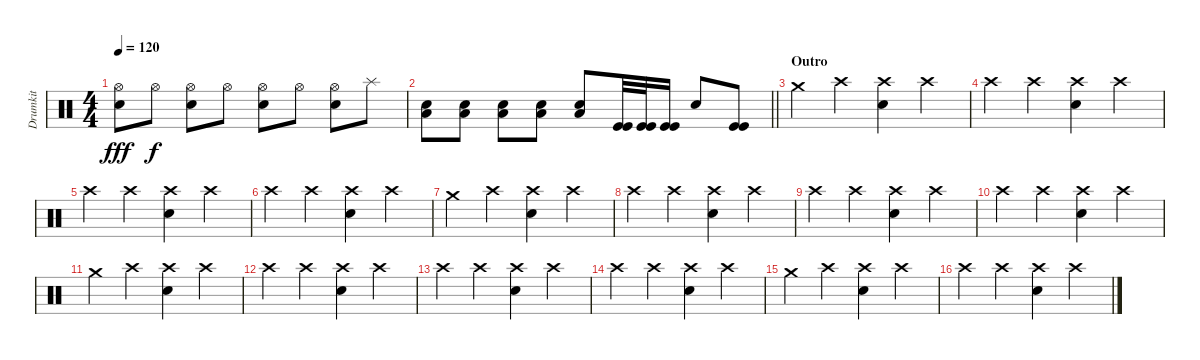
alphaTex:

\track ("Drumkit" "Drumkit") {instrument percussion}
\staff {score}
\articulation defaults
\ts (4 4)
\tempo 120
\clef neutral
\ks c
("Hi-Hat (open)" "Electric Snare (hit)").8{dy fff} "Hi-Hat (open)".8{dy f} ("Hi-Hat (open)" "Electric Snare (hit)").8 "Hi-Hat (open)".8 ("Hi-Hat (open)" "Electric Snare (hit)").8 "Hi-Hat (open)".8 ("Hi-Hat (open)" "Electric Snare (hit)").8 "Splash (hit)".8 |
\barLineRight lightlight
("Low Floor Tom (hit)" "Electric Snare (hit)").8 ("Low Floor Tom (hit)" "Electric Snare (hit)").8 ("Low Floor Tom (hit)" "Electric Snare (hit)").8 ("Low Floor Tom (hit)" "Electric Snare (hit)").8 ("Low Floor Tom (hit)" "Electric Snare (hit)").8 ("Kick (hit)" "Kick (hit)").32 ("Kick (hit)" "Kick (hit)").32 ("Kick (hit)" "Kick (hit)").16 "Electric Snare (hit)".8 ("Kick (hit)" "Kick (hit)").8 |
\section ("" "Outro")
"Crash medium (hit)".4 "Crash high (hit)".4 ("Crash high (hit)" "Electric Snare (hit)").4 "Crash high (hit)".4 |
"Crash high (hit)".4 "Crash high (hit)".4 ("Crash high (hit)" "Electric Snare (hit)").4 "Crash high (hit)".4 |
"Crash high (hit)".4 "Crash high (hit)".4 ("Crash high (hit)" "Electric Snare (hit)").4 "Crash high (hit)".4 |
"Crash high (hit)".4 "Crash high (hit)".4 ("Crash high (hit)" "Electric Snare (hit)").4 "Crash high (hit)".4 |
"Crash medium (hit)".4 "Crash high (hit)".4 ("Crash high (hit)" "Electric Snare (hit)").4 "Crash high (hit)".4 |
"Crash high (hit)".4 "Crash high (hit)".4 ("Crash high (hit)" "Electric Snare (hit)").4 "Crash high (hit)".4 |
"Crash high (hit)".4 "Crash high (hit)".4 ("Crash high (hit)" "Electric Snare (hit)").4 "Crash high (hit)".4 |
"Crash high (hit)".4 "Crash high (hit)".4 ("Crash high (hit)" "Electric Snare (hit)").4 "Crash high (hit)".4 |
"Crash medium (hit)".4 "Crash high (hit)".4 ("Crash high (hit)" "Electric Snare (hit)").4 "Crash high (hit)".4 |
"Crash high (hit)".4 "Crash high (hit)".4 ("Crash high (hit)" "Electric Snare (hit)").4 "Crash high (hit)".4 |
"Crash high (hit)".4 "Crash high (hit)".4 ("Crash high (hit)" "Electric Snare (hit)").4 "Crash high (hit)".4 |
"Crash high (hit)".4 "Crash high (hit)".4 ("Crash high (hit)" "Electric Snare (hit)").4 "Crash high (hit)".4 |
"Crash medium (hit)".4 "Crash high (hit)".4 ("Crash high (hit)" "Electric Snare (hit)").4 "Crash high (hit)".4 |
"Crash high (hit)".4 "Crash high (hit)".4 ("Crash high (hit)" "Electric Snare (hit)").4 "Crash high (hit)".4
